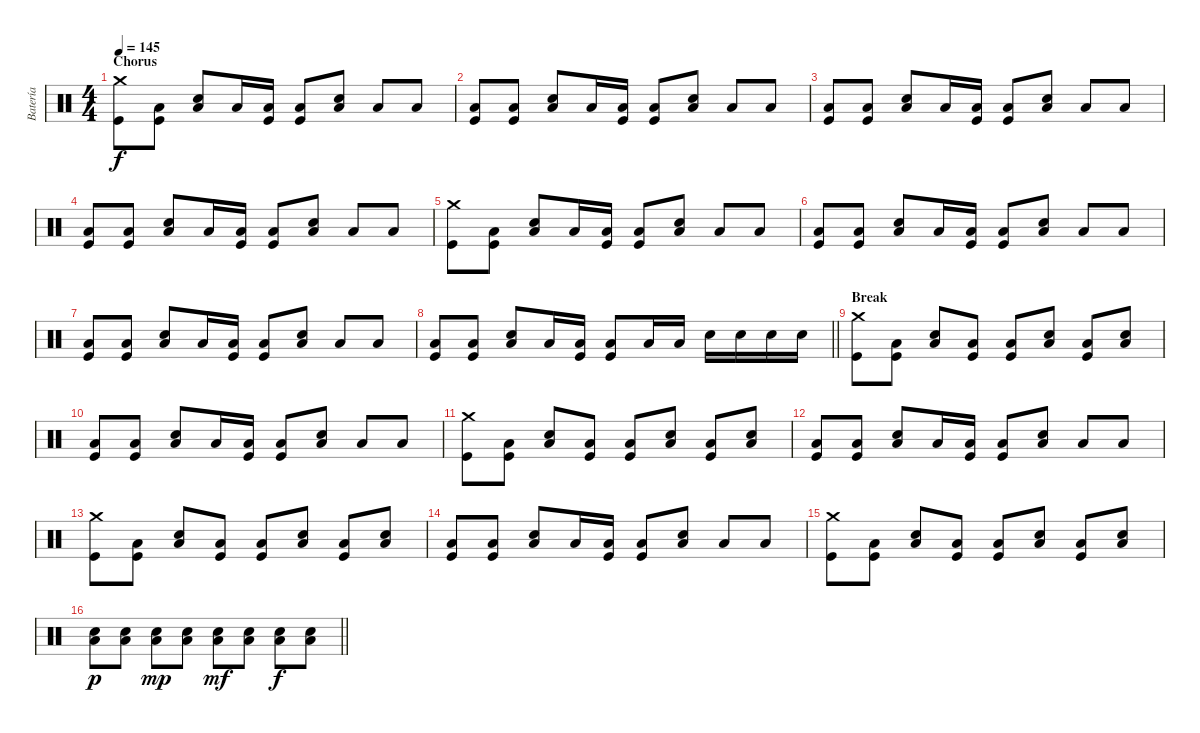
\track ("Batería" "Batería") {instrument percussion}
\staff {score}
\articulation defaults
\ts (4 4)
\section ("" "Chorus")
\tempo 145
\clef neutral
\ks c
("Kick (hit)" "Crash medium (hit)").8{dy f} ("Kick (hit)" "Low Floor Tom (hit)").8 ("Electric Snare (hit)" "Low Floor Tom (hit)").8 "Low Tom (hit)".16 ("Kick (hit)" "Low Tom (hit)").16 ("Kick (hit)" "Low Floor Tom (hit)").8 ("Electric Snare (hit)" "Low Floor Tom (hit)").8 "Low Floor Tom (hit)".8 "Low Floor Tom (hit)".8 |
("Kick (hit)" "Low Floor Tom (hit)").8 ("Kick (hit)" "Low Floor Tom (hit)").8 ("Electric Snare (hit)" "Low Floor Tom (hit)").8 "Low Tom (hit)".16 ("Kick (hit)" "Low Tom (hit)").16 ("Kick (hit)" "Low Floor Tom (hit)").8 ("Electric Snare (hit)" "Low Floor Tom (hit)").8 "Low Floor Tom (hit)".8 "Low Floor Tom (hit)".8 |
("Kick (hit)" "Low Floor Tom (hit)").8 ("Kick (hit)" "Low Floor Tom (hit)").8 ("Electric Snare (hit)" "Low Floor Tom (hit)").8 "Low Tom (hit)".16 ("Kick (hit)" "Low Tom (hit)").16 ("Kick (hit)" "Low Floor Tom (hit)").8 ("Electric Snare (hit)" "Low Floor Tom (hit)").8 "Low Floor Tom (hit)".8 "Low Floor Tom (hit)".8 |
("Kick (hit)" "Low Floor Tom (hit)").8 ("Kick (hit)" "Low Floor Tom (hit)").8 ("Electric Snare (hit)" "Low Floor Tom (hit)").8 "Low Tom (hit)".16 ("Kick (hit)" "Low Tom (hit)").16 ("Kick (hit)" "Low Floor Tom (hit)").8 ("Electric Snare (hit)" "Low Floor Tom (hit)").8 "Low Floor Tom (hit)".8 "Low Floor Tom (hit)".8 |
("Kick (hit)" "Crash medium (hit)").8 ("Kick (hit)" "Low Floor Tom (hit)").8 ("Electric Snare (hit)" "Low Floor Tom (hit)").8 "Low Tom (hit)".16 ("Kick (hit)" "Low Tom (hit)").16 ("Kick (hit)" "Low Floor Tom (hit)").8 ("Electric Snare (hit)" "Low Floor Tom (hit)").8 "Low Floor Tom (hit)".8 "Low Floor Tom (hit)".8 |
("Kick (hit)" "Low Floor Tom (hit)").8 ("Kick (hit)" "Low Floor Tom (hit)").8 ("Electric Snare (hit)" "Low Floor Tom (hit)").8 "Low Tom (hit)".16 ("Kick (hit)" "Low Tom (hit)").16 ("Kick (hit)" "Low Floor Tom (hit)").8 ("Electric Snare (hit)" "Low Floor Tom (hit)").8 "Low Floor Tom (hit)".8 "Low Floor Tom (hit)".8 |
("Kick (hit)" "Low Floor Tom (hit)").8 ("Kick (hit)" "Low Floor Tom (hit)").8 ("Electric Snare (hit)" "Low Floor Tom (hit)").8 "Low Tom (hit)".16 ("Kick (hit)" "Low Tom (hit)").16 ("Kick (hit)" "Low Floor Tom (hit)").8 ("Electric Snare (hit)" "Low Floor Tom (hit)").8 "Low Floor Tom (hit)".8 "Low Floor Tom (hit)".8 |
\barLineRight lightlight
("Kick (hit)" "Low Floor Tom (hit)").8 ("Kick (hit)" "Low Floor Tom (hit)").8 ("Electric Snare (hit)" "Low Floor Tom (hit)").8 "Low Tom (hit)".16 ("Kick (hit)" "Low Tom (hit)").16 ("Kick (hit)" "Low Floor Tom (hit)").8 "Low Tom (hit)".16 "Low Tom (hit)".16 "Electric Snare (hit)".16 "Electric Snare (hit)".16 "Electric Snare (hit)".16 "Electric Snare (hit)".16 |
\section ("" "Break")
("Kick (hit)" "Crash medium (hit)").8 ("Kick (hit)" "Low Floor Tom (hit)").8 ("Electric Snare (hit)" "Low Floor Tom (hit)").8 ("Kick (hit)" "Low Floor Tom (hit)").8 ("Kick (hit)" "Low Floor Tom (hit)").8 ("Electric Snare (hit)" "Low Floor Tom (hit)").8 ("Kick (hit)" "Low Floor Tom (hit)").8 ("Electric Snare (hit)" "Low Floor Tom (hit)").8 |
("Kick (hit)" "Low Floor Tom (hit)").8 ("Kick (hit)" "Low Floor Tom (hit)").8 ("Electric Snare (hit)" "Low Floor Tom (hit)").8 "Low Tom (hit)".16 ("Kick (hit)" "Low Tom (hit)").16 ("Kick (hit)" "Low Floor Tom (hit)").8 ("Electric Snare (hit)" "Low Floor Tom (hit)").8 "Low Floor Tom (hit)".8 "Low Floor Tom (hit)".8 |
("Kick (hit)" "Crash medium (hit)").8 ("Kick (hit)" "Low Floor Tom (hit)").8 ("Electric Snare (hit)" "Low Floor Tom (hit)").8 ("Kick (hit)" "Low Floor Tom (hit)").8 ("Kick (hit)" "Low Floor Tom (hit)").8 ("Electric Snare (hit)" "Low Floor Tom (hit)").8 ("Kick (hit)" "Low Floor Tom (hit)").8 ("Electric Snare (hit)" "Low Floor Tom (hit)").8 |
("Kick (hit)" "Low Floor Tom (hit)").8 ("Kick (hit)" "Low Floor Tom (hit)").8 ("Electric Snare (hit)" "Low Floor Tom (hit)").8 "Low Tom (hit)".16 ("Kick (hit)" "Low Tom (hit)").16 ("Kick (hit)" "Low Floor Tom (hit)").8 ("Electric Snare (hit)" "Low Floor Tom (hit)").8 "Low Floor Tom (hit)".8 "Low Floor Tom (hit)".8 |
("Kick (hit)" "Crash medium (hit)").8 ("Kick (hit)" "Low Floor Tom (hit)").8 ("Electric Snare (hit)" "Low Floor Tom (hit)").8 ("Kick (hit)" "Low Floor Tom (hit)").8 ("Kick (hit)" "Low Floor Tom (hit)").8 ("Electric Snare (hit)" "Low Floor Tom (hit)").8 ("Kick (hit)" "Low Floor Tom (hit)").8 ("Electric Snare (hit)" "Low Floor Tom (hit)").8 |
("Kick (hit)" "Low Floor Tom (hit)").8 ("Kick (hit)" "Low Floor Tom (hit)").8 ("Electric Snare (hit)" "Low Floor Tom (hit)").8 "Low Tom (hit)".16 ("Kick (hit)" "Low Tom (hit)").16 ("Kick (hit)" "Low Floor Tom (hit)").8 ("Electric Snare (hit)" "Low Floor Tom (hit)").8 "Low Floor Tom (hit)".8 "Low Floor Tom (hit)".8 |
("Kick (hit)" "Crash medium (hit)").8 ("Kick (hit)" "Low Floor Tom (hit)").8 ("Electric Snare (hit)" "Low Floor Tom (hit)").8 ("Kick (hit)" "Low Floor Tom (hit)").8 ("Kick (hit)" "Low Floor Tom (hit)").8 ("Electric Snare (hit)" "Low Floor Tom (hit)").8 ("Kick (hit)" "Low Floor Tom (hit)").8 ("Electric Snare (hit)" "Low Floor Tom (hit)").8 |
\barLineRight lightlight
("Electric Snare (hit)" "Low Floor Tom (hit)").8{dy p} ("Electric Snare (hit)" "Low Floor Tom (hit)").8 ("Electric Snare (hit)" "Low Floor Tom (hit)").8{dy mp} ("Electric Snare (hit)" "Low Floor Tom (hit)").8 ("Electric Snare (hit)" "Low Floor Tom (hit)").8{dy mf} ("Electric Snare (hit)" "Low Floor Tom (hit)").8 ("Electric Snare (hit)" "Low Floor Tom (hit)").8{dy f} ("Electric Snare (hit)" "Low Floor Tom (hit)").8
